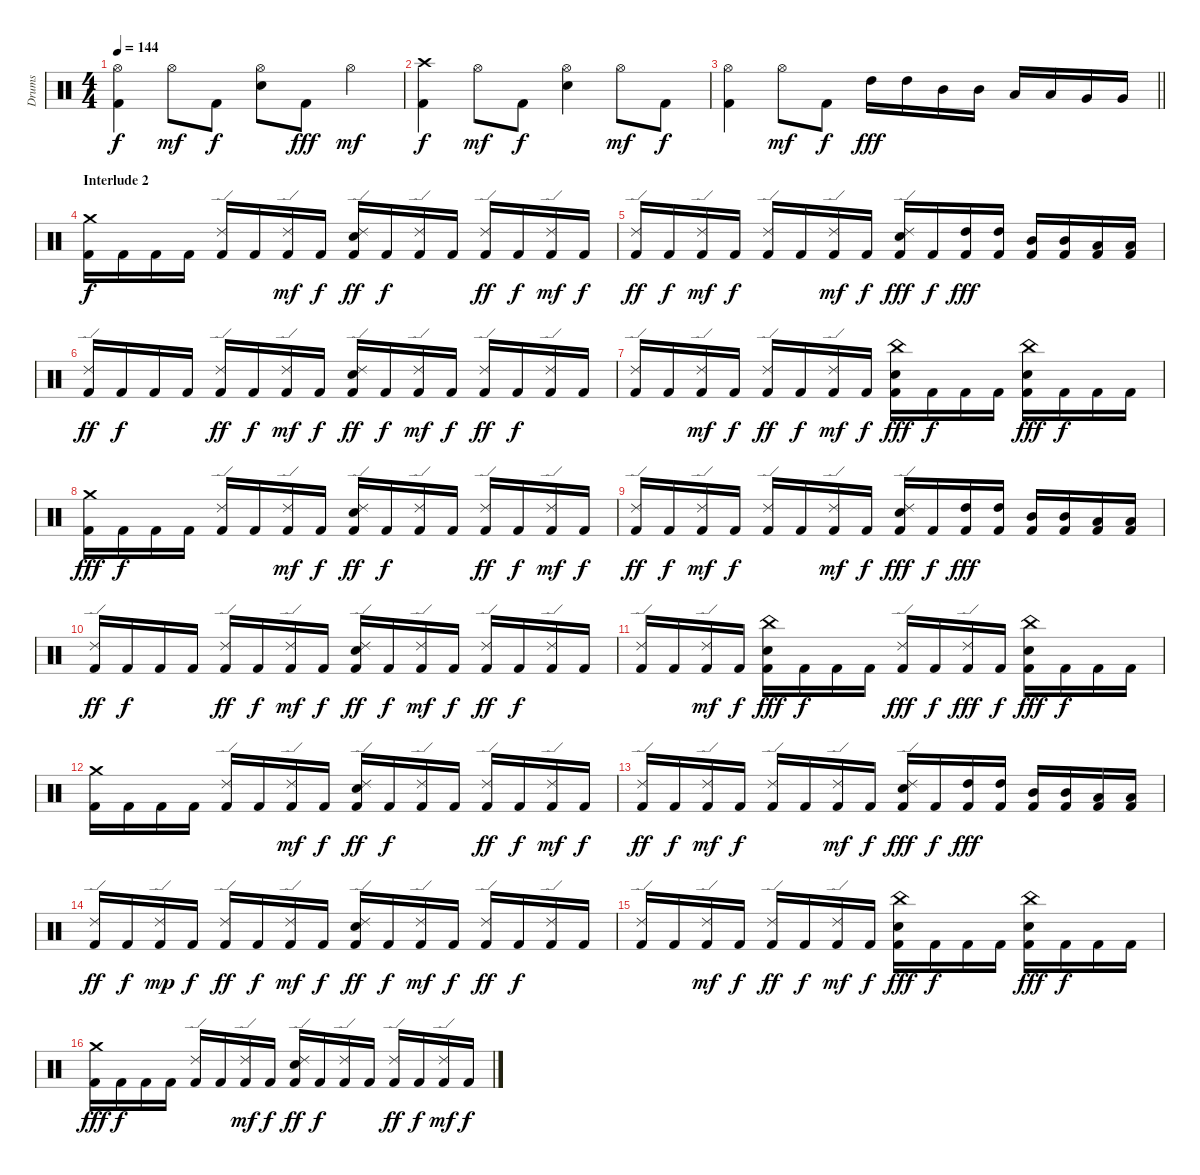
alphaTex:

\track ("Drums" "Drums") {instrument percussion}
\staff {score}
\articulation defaults
\ts (4 4)
\tempo 144
\clef neutral
\ks c
("Hi-Hat (open)" "Kick (hit) 2").4{dy f} "Hi-Hat (open)".8{dy mf} "Kick (hit) 2".8{dy f} ("Hi-Hat (open)" "Electric Snare (hit)").8 "Kick (hit) 2".8{dy fff} "Hi-Hat (open)".4{dy mf} |
("Crash high (hit)" "Kick (hit) 2").4{dy f} "Hi-Hat (open)".8{dy mf} "Kick (hit) 2".8{dy f} ("Hi-Hat (open)" "Electric Snare (hit)").4 "Hi-Hat (open)".8{dy mf} "Kick (hit) 2".8{dy f} |
\barLineRight lightlight
("Hi-Hat (open)" "Kick (hit) 2").4 "Hi-Hat (open)".8{dy mf} "Kick (hit) 2".8{dy f} "High Tom (hit)".16{dy fff} "High Tom (hit)".16 "Mid Tom (hit)".16 "Mid Tom (hit)".16 "Low Tom (hit)".16 "Low Tom (hit)".16 "Very Low Tom (hit)".16 "Very Low Tom (hit)".16 |
\section ("" "Interlude 2")
("Crash medium (hit)" "Kick (hit) 2").16{dy f} "Kick (hit) 2".16 "Kick (hit) 2".16 "Kick (hit) 2".16 ("Ride (edge) 2" "Kick (hit) 2").16 "Kick (hit) 2".16 ("Ride (edge) 2" "Kick (hit) 2").16{dy mf} "Kick (hit) 2".16{dy f} ("Ride (edge) 2" "Electric Snare (hit)" "Kick (hit) 2").16{dy ff} "Kick (hit) 2".16{dy f} ("Ride (edge) 2" "Kick (hit) 2").16 "Kick (hit) 2".16 ("Ride (edge) 2" "Kick (hit) 2").16{dy ff} "Kick (hit) 2".16{dy f} ("Ride (edge) 2" "Kick (hit) 2").16{dy mf} "Kick (hit) 2".16{dy f} |
("Ride (edge) 2" "Kick (hit) 2").16{dy ff} "Kick (hit) 2".16{dy f} ("Ride (edge) 2" "Kick (hit) 2").16{dy mf} "Kick (hit) 2".16{dy f} ("Ride (edge) 2" "Kick (hit) 2").16 "Kick (hit) 2".16 ("Ride (edge) 2" "Kick (hit) 2").16{dy mf} "Kick (hit) 2".16{dy f} ("Ride (edge) 2" "Electric Snare (hit)" "Kick (hit) 2").16{dy fff} "Kick (hit) 2".16{dy f} ("High Tom (hit)" "Kick (hit) 2").16{dy fff} ("High Tom (hit)" "Kick (hit) 2").16 ("Mid Tom (hit)" "Kick (hit) 2").16 ("Mid Tom (hit)" "Kick (hit) 2").16 ("Low Tom (hit)" "Kick (hit) 2").16 ("Low Tom (hit)" "Kick (hit) 2").16 |
("Ride (edge) 2" "Kick (hit) 2").16{dy ff} "Kick (hit) 2".16{dy f} "Kick (hit) 2".16 "Kick (hit) 2".16 ("Ride (edge) 2" "Kick (hit) 2").16{dy ff} "Kick (hit) 2".16{dy f} ("Ride (edge) 2" "Kick (hit) 2").16{dy mf} "Kick (hit) 2".16{dy f} ("Ride (edge) 2" "Electric Snare (hit)" "Kick (hit) 2").16{dy ff} "Kick (hit) 2".16{dy f} ("Ride (edge) 2" "Kick (hit) 2").16{dy mf} "Kick (hit) 2".16{dy f} ("Ride (edge) 2" "Kick (hit) 2").16{dy ff} "Kick (hit) 2".16{dy f} ("Ride (edge) 2" "Kick (hit) 2").16 "Kick (hit) 2".16 |
("Ride (edge) 2" "Kick (hit) 2").16 "Kick (hit) 2".16 ("Ride (edge) 2" "Kick (hit) 2").16{dy mf} "Kick (hit) 2".16{dy f} ("Ride (edge) 2" "Kick (hit) 2").16{dy ff} "Kick (hit) 2".16{dy f} ("Ride (edge) 2" "Kick (hit) 2").16{dy mf} "Kick (hit) 2".16{dy f} ("China (hit)" "Electric Snare (hit)" "Kick (hit) 2").16{dy fff} "Kick (hit) 2".16{dy f} "Kick (hit) 2".16 "Kick (hit) 2".16 ("China (hit)" "Electric Snare (hit)" "Kick (hit) 2").16{dy fff} "Kick (hit) 2".16{dy f} "Kick (hit) 2".16 "Kick (hit) 2".16 |
("Crash medium (hit)" "Kick (hit) 2").16{dy fff} "Kick (hit) 2".16{dy f} "Kick (hit) 2".16 "Kick (hit) 2".16 ("Ride (edge) 2" "Kick (hit) 2").16 "Kick (hit) 2".16 ("Ride (edge) 2" "Kick (hit) 2").16{dy mf} "Kick (hit) 2".16{dy f} ("Ride (edge) 2" "Electric Snare (hit)" "Kick (hit) 2").16{dy ff} "Kick (hit) 2".16{dy f} ("Ride (edge) 2" "Kick (hit) 2").16 "Kick (hit) 2".16 ("Ride (edge) 2" "Kick (hit) 2").16{dy ff} "Kick (hit) 2".16{dy f} ("Ride (edge) 2" "Kick (hit) 2").16{dy mf} "Kick (hit) 2".16{dy f} |
("Ride (edge) 2" "Kick (hit) 2").16{dy ff} "Kick (hit) 2".16{dy f} ("Ride (edge) 2" "Kick (hit) 2").16{dy mf} "Kick (hit) 2".16{dy f} ("Ride (edge) 2" "Kick (hit) 2").16 "Kick (hit) 2".16 ("Ride (edge) 2" "Kick (hit) 2").16{dy mf} "Kick (hit) 2".16{dy f} ("Ride (edge) 2" "Electric Snare (hit)" "Kick (hit) 2").16{dy fff} "Kick (hit) 2".16{dy f} ("High Tom (hit)" "Kick (hit) 2").16{dy fff} ("High Tom (hit)" "Kick (hit) 2").16 ("Mid Tom (hit)" "Kick (hit) 2").16 ("Mid Tom (hit)" "Kick (hit) 2").16 ("Low Tom (hit)" "Kick (hit) 2").16 ("Low Tom (hit)" "Kick (hit) 2").16 |
("Ride (edge) 2" "Kick (hit) 2").16{dy ff} "Kick (hit) 2".16{dy f} "Kick (hit) 2".16 "Kick (hit) 2".16 ("Ride (edge) 2" "Kick (hit) 2").16{dy ff} "Kick (hit) 2".16{dy f} ("Ride (edge) 2" "Kick (hit) 2").16{dy mf} "Kick (hit) 2".16{dy f} ("Ride (edge) 2" "Electric Snare (hit)" "Kick (hit) 2").16{dy ff} "Kick (hit) 2".16{dy f} ("Ride (edge) 2" "Kick (hit) 2").16{dy mf} "Kick (hit) 2".16{dy f} ("Ride (edge) 2" "Kick (hit) 2").16{dy ff} "Kick (hit) 2".16{dy f} ("Ride (edge) 2" "Kick (hit) 2").16 "Kick (hit) 2".16 |
("Ride (edge) 2" "Kick (hit) 2").16 "Kick (hit) 2".16 ("Ride (edge) 2" "Kick (hit) 2").16{dy mf} "Kick (hit) 2".16{dy f} ("China (hit)" "Electric Snare (hit)" "Kick (hit) 2").16{dy fff} "Kick (hit) 2".16{dy f} "Kick (hit) 2".16 "Kick (hit) 2".16 ("Ride (edge) 2" "Kick (hit) 2").16{dy fff} "Kick (hit) 2".16{dy f} ("Ride (edge) 2" "Kick (hit) 2").16{dy fff} "Kick (hit) 2".16{dy f} ("China (hit)" "Electric Snare (hit)" "Kick (hit) 2").16{dy fff} "Kick (hit) 2".16{dy f} "Kick (hit) 2".16 "Kick (hit) 2".16 |
("Crash medium (hit)" "Kick (hit) 2").16 "Kick (hit) 2".16 "Kick (hit) 2".16 "Kick (hit) 2".16 ("Ride (edge) 2" "Kick (hit) 2").16 "Kick (hit) 2".16 ("Ride (edge) 2" "Kick (hit) 2").16{dy mf} "Kick (hit) 2".16{dy f} ("Ride (edge) 2" "Electric Snare (hit)" "Kick (hit) 2").16{dy ff} "Kick (hit) 2".16{dy f} ("Ride (edge) 2" "Kick (hit) 2").16 "Kick (hit) 2".16 ("Ride (edge) 2" "Kick (hit) 2").16{dy ff} "Kick (hit) 2".16{dy f} ("Ride (edge) 2" "Kick (hit) 2").16{dy mf} "Kick (hit) 2".16{dy f} |
("Ride (edge) 2" "Kick (hit) 2").16{dy ff} "Kick (hit) 2".16{dy f} ("Ride (edge) 2" "Kick (hit) 2").16{dy mf} "Kick (hit) 2".16{dy f} ("Ride (edge) 2" "Kick (hit) 2").16 "Kick (hit) 2".16 ("Ride (edge) 2" "Kick (hit) 2").16{dy mf} "Kick (hit) 2".16{dy f} ("Ride (edge) 2" "Electric Snare (hit)" "Kick (hit) 2").16{dy fff} "Kick (hit) 2".16{dy f} ("High Tom (hit)" "Kick (hit) 2").16{dy fff} ("High Tom (hit)" "Kick (hit) 2").16 ("Mid Tom (hit)" "Kick (hit) 2").16 ("Mid Tom (hit)" "Kick (hit) 2").16 ("Low Tom (hit)" "Kick (hit) 2").16 ("Low Tom (hit)" "Kick (hit) 2").16 |
("Ride (edge) 2" "Kick (hit) 2").16{dy ff} "Kick (hit) 2".16{dy f} ("Ride (edge) 2" "Kick (hit) 2").16{dy mp} "Kick (hit) 2".16{dy f} ("Ride (edge) 2" "Kick (hit) 2").16{dy ff} "Kick (hit) 2".16{dy f} ("Ride (edge) 2" "Kick (hit) 2").16{dy mf} "Kick (hit) 2".16{dy f} ("Ride (edge) 2" "Electric Snare (hit)" "Kick (hit) 2").16{dy ff} "Kick (hit) 2".16{dy f} ("Ride (edge) 2" "Kick (hit) 2").16{dy mf} "Kick (hit) 2".16{dy f} ("Ride (edge) 2" "Kick (hit) 2").16{dy ff} "Kick (hit) 2".16{dy f} ("Ride (edge) 2" "Kick (hit) 2").16 "Kick (hit) 2".16 |
("Ride (edge) 2" "Kick (hit) 2").16 "Kick (hit) 2".16 ("Ride (edge) 2" "Kick (hit) 2").16{dy mf} "Kick (hit) 2".16{dy f} ("Ride (edge) 2" "Kick (hit) 2").16{dy ff} "Kick (hit) 2".16{dy f} ("Ride (edge) 2" "Kick (hit) 2").16{dy mf} "Kick (hit) 2".16{dy f} ("China (hit)" "Electric Snare (hit)" "Kick (hit) 2").16{dy fff} "Kick (hit) 2".16{dy f} "Kick (hit) 2".16 "Kick (hit) 2".16 ("China (hit)" "Electric Snare (hit)" "Kick (hit) 2").16{dy fff} "Kick (hit) 2".16{dy f} "Kick (hit) 2".16 "Kick (hit) 2".16 |
("Crash medium (hit)" "Kick (hit) 2").16{dy fff} "Kick (hit) 2".16{dy f} "Kick (hit) 2".16 "Kick (hit) 2".16 ("Ride (edge) 2" "Kick (hit) 2").16 "Kick (hit) 2".16 ("Ride (edge) 2" "Kick (hit) 2").16{dy mf} "Kick (hit) 2".16{dy f} ("Ride (edge) 2" "Electric Snare (hit)" "Kick (hit) 2").16{dy ff} "Kick (hit) 2".16{dy f} ("Ride (edge) 2" "Kick (hit) 2").16 "Kick (hit) 2".16 ("Ride (edge) 2" "Kick (hit) 2").16{dy ff} "Kick (hit) 2".16{dy f} ("Ride (edge) 2" "Kick (hit) 2").16{dy mf} "Kick (hit) 2".16{dy f}
